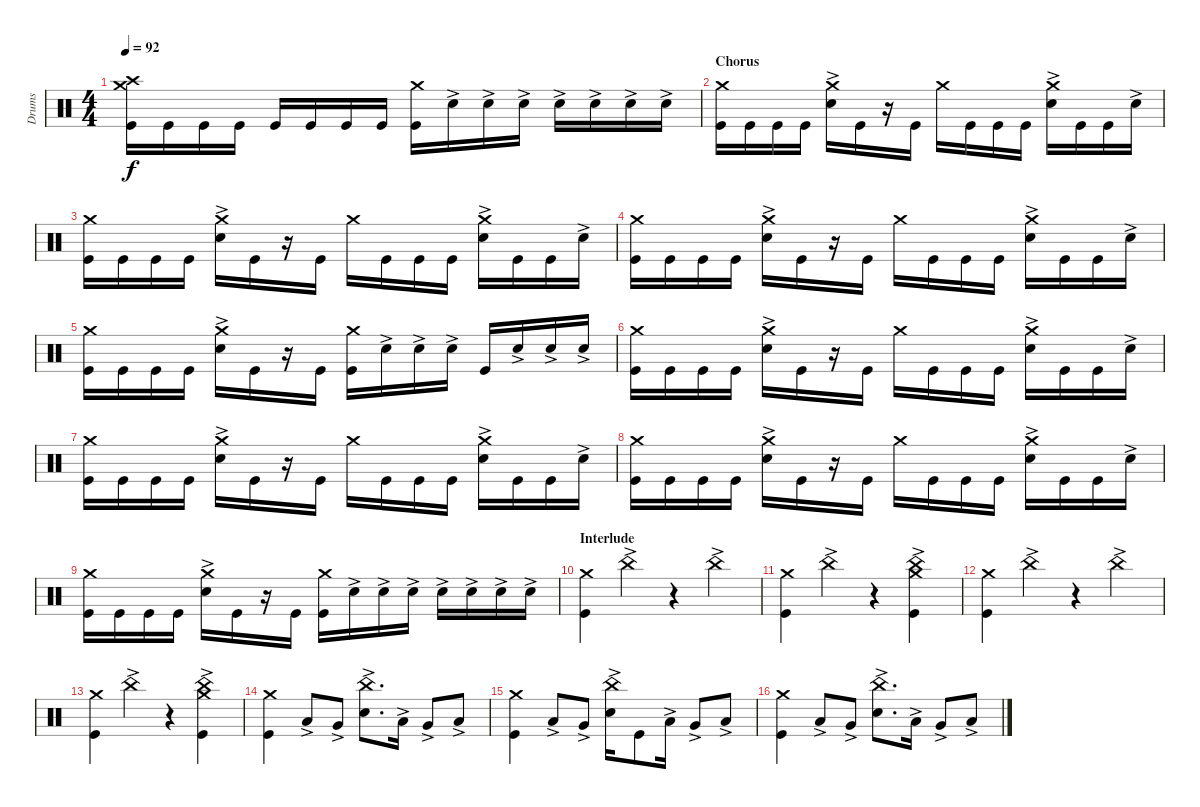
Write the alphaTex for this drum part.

\track ("Drums" "Drums") {instrument percussion}
\staff {score}
\articulation defaults
\ts (4 4)
\tempo 92
\clef neutral
\ks c
("Kick (hit)" "Crash medium (hit)" "Crash high (hit)").16{dy f} "Kick (hit)".16 "Kick (hit)".16 "Kick (hit)".16 "Kick (hit)".16 "Kick (hit)".16 "Kick (hit)".16 "Kick (hit)".16 ("Kick (hit)" "Crash medium (hit)").16 "Snare (hit) 2"{ac}.16 "Snare (hit) 2"{ac}.16 "Snare (hit) 2"{ac}.16 "Snare (hit) 2"{ac}.16 "Snare (hit) 2"{ac}.16 "Snare (hit) 2"{ac}.16 "Snare (hit) 2"{ac}.16 |
\section ("" "Chorus")
("Crash medium (hit)" "Kick (hit)").16 "Kick (hit)".16 "Kick (hit)".16 "Kick (hit)".16 ("Crash medium (hit)" "Snare (hit) 2"{ac}).16 "Kick (hit)".16 r.16 "Kick (hit)".16 "Crash medium (hit)".16 "Kick (hit)".16 "Kick (hit)".16 "Kick (hit)".16 ("Crash medium (hit)" "Snare (hit) 2"{ac}).16 "Kick (hit)".16 "Kick (hit)".16 "Snare (hit) 2"{ac}.16 |
("Crash medium (hit)" "Kick (hit)").16 "Kick (hit)".16 "Kick (hit)".16 "Kick (hit)".16 ("Crash medium (hit)" "Snare (hit) 2"{ac}).16 "Kick (hit)".16 r.16 "Kick (hit)".16 "Crash medium (hit)".16 "Kick (hit)".16 "Kick (hit)".16 "Kick (hit)".16 ("Crash medium (hit)" "Snare (hit) 2"{ac}).16 "Kick (hit)".16 "Kick (hit)".16 "Snare (hit) 2"{ac}.16 |
("Crash medium (hit)" "Kick (hit)").16 "Kick (hit)".16 "Kick (hit)".16 "Kick (hit)".16 ("Crash medium (hit)" "Snare (hit) 2"{ac}).16 "Kick (hit)".16 r.16 "Kick (hit)".16 "Crash medium (hit)".16 "Kick (hit)".16 "Kick (hit)".16 "Kick (hit)".16 ("Crash medium (hit)" "Snare (hit) 2"{ac}).16 "Kick (hit)".16 "Kick (hit)".16 "Snare (hit) 2"{ac}.16 |
("Crash medium (hit)" "Kick (hit)").16 "Kick (hit)".16 "Kick (hit)".16 "Kick (hit)".16 ("Crash medium (hit)" "Snare (hit) 2"{ac}).16 "Kick (hit)".16 r.16 "Kick (hit)".16 ("Kick (hit)" "Crash medium (hit)").16 "Snare (hit) 2"{ac}.16 "Snare (hit) 2"{ac}.16 "Snare (hit) 2"{ac}.16 "Kick (hit)".16 "Snare (hit) 2"{ac}.16 "Snare (hit) 2"{ac}.16 "Snare (hit) 2"{ac}.16 |
("Crash medium (hit)" "Kick (hit)").16 "Kick (hit)".16 "Kick (hit)".16 "Kick (hit)".16 ("Crash medium (hit)" "Snare (hit) 2"{ac}).16 "Kick (hit)".16 r.16 "Kick (hit)".16 "Crash medium (hit)".16 "Kick (hit)".16 "Kick (hit)".16 "Kick (hit)".16 ("Crash medium (hit)" "Snare (hit) 2"{ac}).16 "Kick (hit)".16 "Kick (hit)".16 "Snare (hit) 2"{ac}.16 |
("Crash medium (hit)" "Kick (hit)").16 "Kick (hit)".16 "Kick (hit)".16 "Kick (hit)".16 ("Crash medium (hit)" "Snare (hit) 2"{ac}).16 "Kick (hit)".16 r.16 "Kick (hit)".16 "Crash medium (hit)".16 "Kick (hit)".16 "Kick (hit)".16 "Kick (hit)".16 ("Crash medium (hit)" "Snare (hit) 2"{ac}).16 "Kick (hit)".16 "Kick (hit)".16 "Snare (hit) 2"{ac}.16 |
("Crash medium (hit)" "Kick (hit)").16 "Kick (hit)".16 "Kick (hit)".16 "Kick (hit)".16 ("Crash medium (hit)" "Snare (hit) 2"{ac}).16 "Kick (hit)".16 r.16 "Kick (hit)".16 "Crash medium (hit)".16 "Kick (hit)".16 "Kick (hit)".16 "Kick (hit)".16 ("Crash medium (hit)" "Snare (hit) 2"{ac}).16 "Kick (hit)".16 "Kick (hit)".16 "Snare (hit) 2"{ac}.16 |
("Crash medium (hit)" "Kick (hit)").16 "Kick (hit)".16 "Kick (hit)".16 "Kick (hit)".16 ("Crash medium (hit)" "Snare (hit) 2"{ac}).16 "Kick (hit)".16 r.16 "Kick (hit)".16 ("Kick (hit)" "Crash medium (hit)").16 "Snare (hit) 2"{ac}.16 "Snare (hit) 2"{ac}.16 "Snare (hit) 2"{ac}.16 "Snare (hit) 2"{ac}.16 "Snare (hit) 2"{ac}.16 "Snare (hit) 2"{ac}.16 "Snare (hit) 2"{ac}.16 |
\section ("" "Interlude")
("Kick (hit)" "Crash medium (hit)").4 "China (hit)"{ac}.4 r.4 "China (hit)"{ac}.4 |
("Crash medium (hit)" "Kick (hit)").4 "China (hit)"{ac}.4 r.4 ("China (hit)"{ac} "Kick (hit)" "Crash medium (hit)").4 |
("Crash medium (hit)" "Kick (hit)").4 "China (hit)"{ac}.4 r.4 "China (hit)"{ac}.4 |
("Crash medium (hit)" "Kick (hit)").4 "China (hit)"{ac}.4 r.4 ("China (hit)"{ac} "Kick (hit)" "Crash medium (hit)").4 |
("Kick (hit)" "Crash medium (hit)").4 "Low Tom (hit)"{ac}.8 "Very Low Tom (hit)"{ac}.8 ("Snare (hit) 2"{ac} "China (hit)"{ac}).8{d} "Low Tom (hit)"{ac}.16 "Very Low Tom (hit)"{ac}.8 "Low Floor Tom (hit)"{ac}.8 |
("Kick (hit)" "Crash medium (hit)").4 "Low Tom (hit)"{ac}.8 "Very Low Tom (hit)"{ac}.8 ("Snare (hit) 2"{ac} "China (hit)"{ac}).16 "Kick (hit)".8 "Low Tom (hit)"{ac}.16 "Very Low Tom (hit)"{ac}.8 "Low Floor Tom (hit)"{ac}.8 |
("Kick (hit)" "Crash medium (hit)").4 "Low Tom (hit)"{ac}.8 "Very Low Tom (hit)"{ac}.8 ("Snare (hit) 2"{ac} "China (hit)"{ac}).8{d} "Low Tom (hit)"{ac}.16 "Very Low Tom (hit)"{ac}.8 "Low Floor Tom (hit)"{ac}.8
